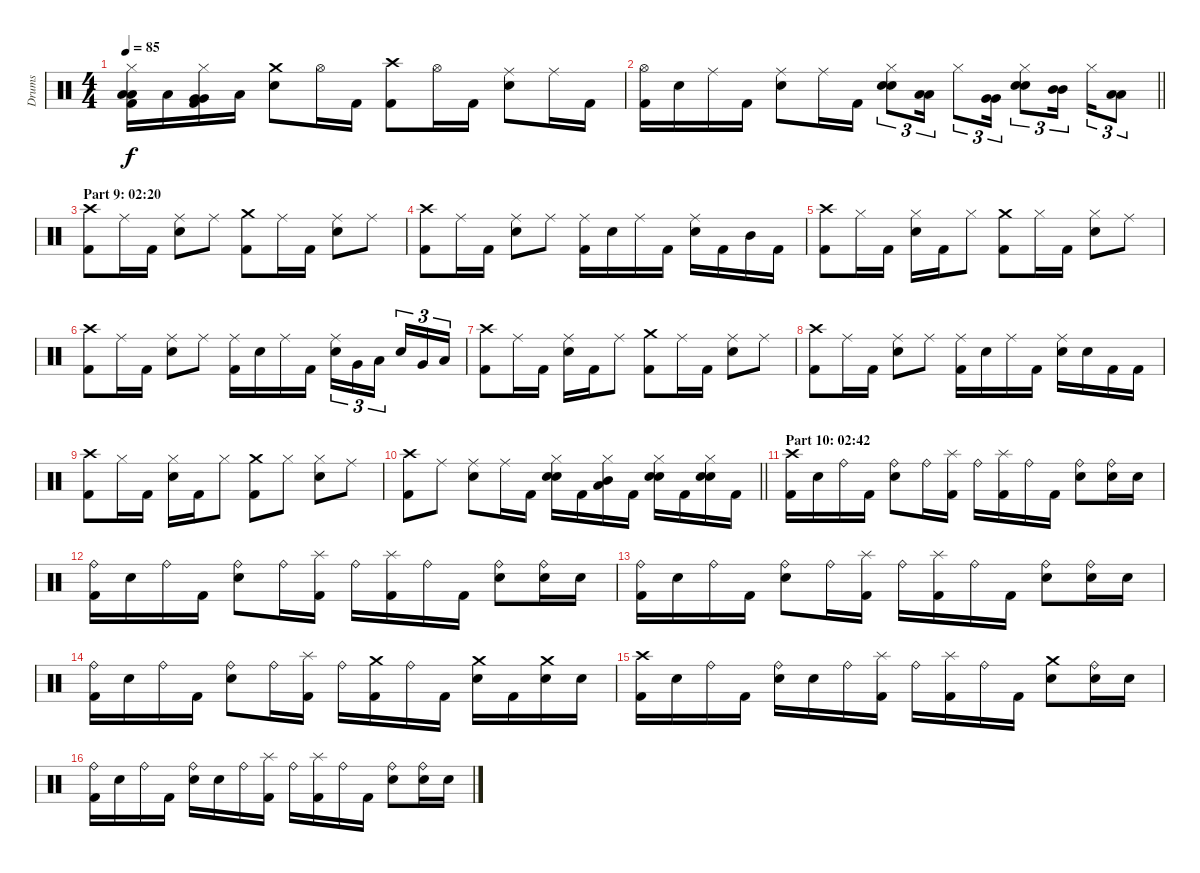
\track ("Drums" "Drums") {instrument percussion}
\staff {score}
\articulation defaults
\ts (4 4)
\tempo 85
\clef neutral
\ks c
("Hi-Hat (closed)" "Low Tom (hit)" "Low Tom (hit)" "Kick (hit) 2").16{bu 30 dy f} "Low Floor Tom (hit)".16 ("Hi-Hat (closed)" "Very Low Tom (hit)" "Very Low Tom (hit)" "Kick (hit) 2").16{bu 30} "Low Floor Tom (hit)".16 ("Crash medium (hit)" "Electric Snare (hit)").8 "Hi-Hat (open)".16 "Kick (hit) 2".16 ("Crash high (hit)" "Kick (hit) 2").8 "Hi-Hat (open)".16 "Kick (hit) 2".16 ("Ride (middle)" "Electric Snare (hit)").8 "Ride (middle)".16 "Kick (hit) 2".16 |
\barLineRight lightlight
("Hi-Hat (open)" "Kick (hit) 2").16 "Electric Snare (hit)".16 "Ride (middle)".16 "Kick (hit) 2".16 ("Ride (middle)" "Electric Snare (hit)").8 "Ride (middle)".16 "Kick (hit) 2".16 ("Hi-Hat (closed)" "Electric Snare (hit)" "Electric Snare (hit)").8{tu (3 2) bu 30} ("Low Tom (hit)" "Low Tom (hit)").16{tu (3 2)} "Hi-Hat (closed)".8{tu (3 2)} ("Very Low Tom (hit)" "Very Low Tom (hit)").16{tu (3 2)} ("Hi-Hat (closed)" "Electric Snare (hit)" "Electric Snare (hit)").8{tu (3 2) bu 30} ("Mid Tom (hit)" "Mid Tom (hit)").16{tu (3 2) beam splitsecondary} "Hi-Hat (closed)".16{tu (3 2)} ("Low Tom (hit)" "Low Tom (hit)").8{tu (3 2)} |
\section ("" "Part 9: 02:20")
("Crash high (hit)" "Kick (hit) 2").8 "Ride (middle)".16 "Kick (hit) 2".16 ("Ride (middle)" "Electric Snare (hit)").8 "Ride (middle)".8 ("Crash medium (hit)" "Kick (hit) 2").8 "Ride (middle)".16 "Kick (hit) 2".16 ("Ride (middle)" "Electric Snare (hit)").8 "Ride (middle)".8 |
("Crash high (hit)" "Kick (hit) 2").8 "Ride (middle)".16 "Kick (hit) 2".16 ("Ride (middle)" "Electric Snare (hit)").8 "Ride (middle)".8 ("Ride (middle)" "Kick (hit) 2").16 "Electric Snare (hit)".16 "Ride (middle)".16 "Kick (hit) 2".16 ("Ride (middle)" "Electric Snare (hit)").16 "Kick (hit) 2".16 "Mid Tom (hit)".16 "Kick (hit) 2".16 |
("Crash high (hit)" "Kick (hit) 2").8 "Hi-Hat (closed)".16 "Kick (hit) 2".16 ("Hi-Hat (closed)" "Electric Snare (hit)").16 "Kick (hit) 2".16 "Hi-Hat (closed)".8 ("Crash medium (hit)" "Kick (hit) 2").8 "Hi-Hat (closed)".16 "Kick (hit) 2".16 ("Hi-Hat (closed)" "Electric Snare (hit)").8 "Ride (middle)".8 |
("Crash high (hit)" "Kick (hit) 2").8 "Ride (middle)".16 "Kick (hit) 2".16 ("Ride (middle)" "Electric Snare (hit)").8 "Ride (middle)".8 ("Ride (middle)" "Kick (hit) 2").16 "Electric Snare (hit)".16 "Ride (middle)".16 "Kick (hit) 2".16 ("Ride (middle)" "Electric Snare (hit)").16{tu (3 2)} "Very Low Tom (hit)".16{tu (3 2)} "Low Floor Tom (hit)".16{tu (3 2) beam splitsecondary} "Electric Snare (hit)".16{tu (3 2)} "Very Low Tom (hit)".16{tu (3 2)} "Low Floor Tom (hit)".16{tu (3 2)} |
("Crash high (hit)" "Kick (hit) 2").8 "Ride (middle)".16 "Kick (hit) 2".16 ("Ride (middle)" "Electric Snare (hit)").16 "Kick (hit) 2".16 "Ride (middle)".8 ("Crash medium (hit)" "Kick (hit) 2").8 "Ride (middle)".16 "Kick (hit) 2".16 ("Ride (middle)" "Electric Snare (hit)").8 "Ride (middle)".8 |
("Crash high (hit)" "Kick (hit) 2").8 "Ride (middle)".16 "Kick (hit) 2".16 ("Ride (middle)" "Electric Snare (hit)").8 "Ride (middle)".8 ("Ride (middle)" "Kick (hit) 2").16 "Electric Snare (hit)".16 "Ride (middle)".16 "Kick (hit) 2".16 ("Ride (middle)" "Electric Snare (hit)").16 "Electric Snare (hit)".16 "Kick (hit) 2".16 "Kick (hit) 2".16 |
("Crash high (hit)" "Kick (hit) 2").8 "Hi-Hat (closed)".16 "Kick (hit) 2".16 ("Hi-Hat (closed)" "Electric Snare (hit)").16 "Kick (hit) 2".16 "Hi-Hat (closed)".8 ("Crash medium (hit)" "Kick (hit) 2").8 "Hi-Hat (closed)".8 ("Hi-Hat (closed)" "Electric Snare (hit)").8 "Ride (middle)".8 |
\barLineRight lightlight
("Crash high (hit)" "Kick (hit) 2").8 "Ride (middle)".8 ("Ride (middle)" "Electric Snare (hit)").8 "Ride (middle)".16 "Kick (hit) 2".16 ("Hi-Hat (closed)" "Electric Snare (hit)" "Electric Snare (hit)").16{bu 30} "Kick (hit) 2".16 ("Hi-Hat (closed)" "Low Tom (hit)" "Mid Tom (hit)").16{bu 30} "Kick (hit) 2".16 ("Hi-Hat (closed)" "Electric Snare (hit)" "Electric Snare (hit)").16{bu 30} "Kick (hit) 2".16 ("Hi-Hat (closed)" "Electric Snare (hit)" "Electric Snare (hit)").16{bu 30} "Kick (hit) 2".16 |
\section ("" "Part 10: 02:42")
("Crash high (hit)" "Kick (hit) 2").16 "Electric Snare (hit)".16 "Ride (bell)".16 "Kick (hit) 2".16 ("Ride (bell)" "Electric Snare (hit)").8 "Ride (bell)".16 ("Splash (hit)" "Kick (hit) 2").16 "Ride (bell)".16 ("Splash (hit)" "Kick (hit) 2").16 "Ride (bell)".16 "Kick (hit) 2".16 ("Ride (bell)" "Electric Snare (hit)").8 ("Ride (bell)" "Electric Snare (hit)").16 "Electric Snare (hit)".16 |
("Ride (bell)" "Kick (hit) 2").16 "Electric Snare (hit)".16 "Ride (bell)".16 "Kick (hit) 2".16 ("Ride (bell)" "Electric Snare (hit)").8 "Ride (bell)".16 ("Splash (hit)" "Kick (hit) 2").16 "Ride (bell)".16 ("Splash (hit)" "Kick (hit) 2").16 "Ride (bell)".16 "Kick (hit) 2".16 ("Ride (bell)" "Electric Snare (hit)").8 ("Ride (bell)" "Electric Snare (hit)").16 "Electric Snare (hit)".16 |
("Ride (bell)" "Kick (hit) 2").16 "Electric Snare (hit)".16 "Ride (bell)".16 "Kick (hit) 2".16 ("Ride (bell)" "Electric Snare (hit)").8 "Ride (bell)".16 ("Splash (hit)" "Kick (hit) 2").16 "Ride (bell)".16 ("Splash (hit)" "Kick (hit) 2").16 "Ride (bell)".16 "Kick (hit) 2".16 ("Ride (bell)" "Electric Snare (hit)").8 ("Ride (bell)" "Electric Snare (hit)").16 "Electric Snare (hit)".16 |
("Ride (bell)" "Kick (hit) 2").16 "Electric Snare (hit)".16 "Ride (bell)".16 "Kick (hit) 2".16 ("Ride (bell)" "Electric Snare (hit)").8 "Ride (bell)".16 ("Splash (hit)" "Kick (hit) 2").16 "Ride (bell)".16 ("Crash medium (hit)" "Kick (hit) 2").16 "Ride (bell)".16 "Kick (hit) 2".16 ("Crash medium (hit)" "Electric Snare (hit)").16 "Kick (hit) 2".16 ("Crash medium (hit)" "Electric Snare (hit)").16 "Electric Snare (hit)".16 |
("Crash high (hit)" "Kick (hit) 2").16 "Electric Snare (hit)".16 "Ride (bell)".16 "Kick (hit) 2".16 ("Ride (bell)" "Electric Snare (hit)").16 "Electric Snare (hit)".16 "Ride (bell)".16 ("Splash (hit)" "Kick (hit) 2").16 "Ride (bell)".16 ("Splash (hit)" "Kick (hit) 2").16 "Ride (bell)".16 "Kick (hit) 2".16 ("Crash medium (hit)" "Electric Snare (hit)").8 ("Ride (bell)" "Electric Snare (hit)").16 "Electric Snare (hit)".16 |
("Ride (bell)" "Kick (hit) 2").16 "Electric Snare (hit)".16 "Ride (bell)".16 "Kick (hit) 2".16 ("Ride (bell)" "Electric Snare (hit)").16 "Electric Snare (hit)".16 "Ride (bell)".16 ("Splash (hit)" "Kick (hit) 2").16 "Ride (bell)".16 ("Splash (hit)" "Kick (hit) 2").16 "Ride (bell)".16 "Kick (hit) 2".16 ("Ride (bell)" "Electric Snare (hit)").8 ("Ride (bell)" "Electric Snare (hit)").16 "Electric Snare (hit)".16
